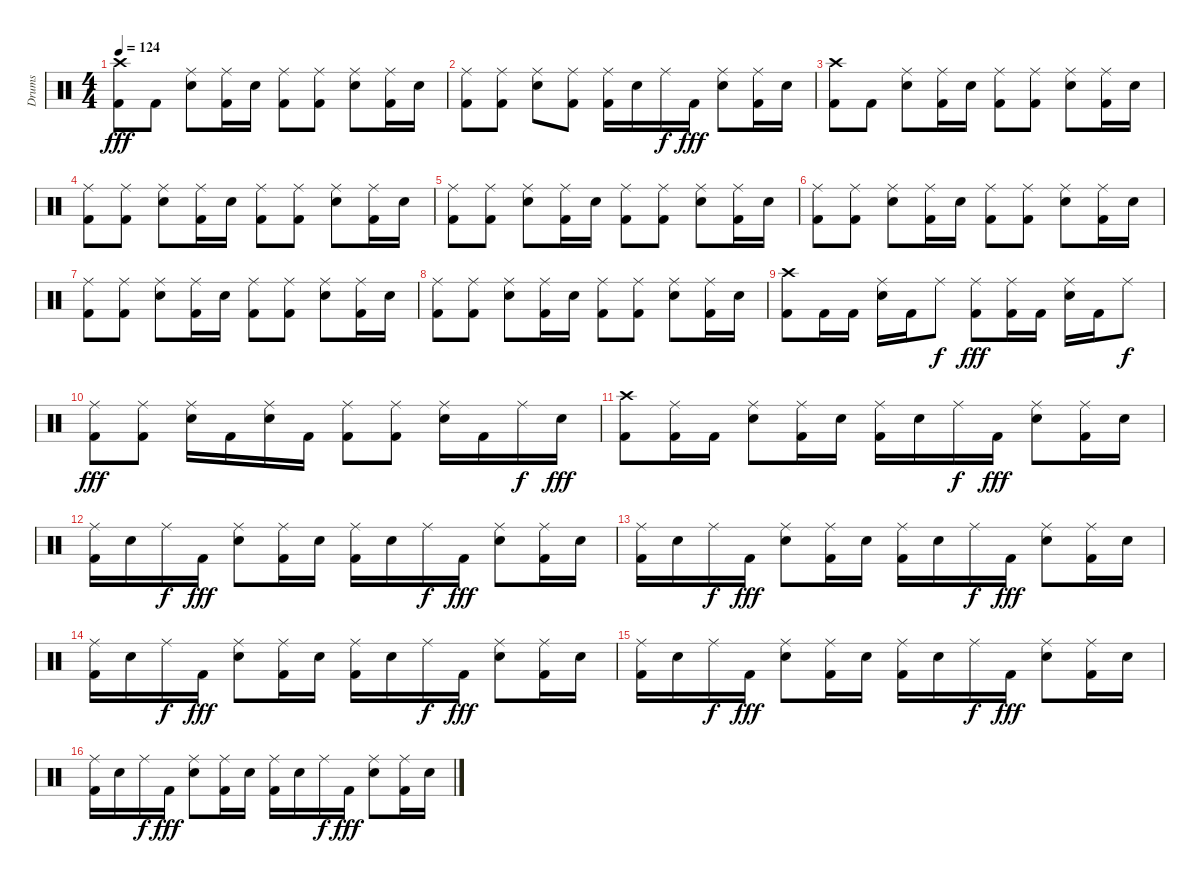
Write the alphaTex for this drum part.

\track ("Drums" "Drums") {instrument percussion}
\staff {score}
\articulation defaults
\ts (4 4)
\tempo 124
\clef neutral
\ks c
("Crash high (hit)" "Kick (hit) 2").8{dy fff} "Kick (hit) 2".8 ("Ride (middle)" "Electric Snare (hit)").8 ("Ride (middle)" "Kick (hit) 2").16 "Electric Snare (hit)".16 ("Ride (middle)" "Kick (hit) 2").8 ("Ride (middle)" "Kick (hit) 2").8 ("Ride (middle)" "Electric Snare (hit)").8 ("Ride (middle)" "Kick (hit) 2").16 "Electric Snare (hit)".16 |
("Ride (middle)" "Kick (hit) 2").8 ("Ride (middle)" "Kick (hit) 2").8 ("Ride (middle)" "Electric Snare (hit)").8 ("Ride (middle)" "Kick (hit) 2").8 ("Ride (middle)" "Kick (hit) 2").16 "Electric Snare (hit)".16 "Ride (middle)".16{dy f} "Kick (hit) 2".16{dy fff} ("Ride (middle)" "Electric Snare (hit)").8 ("Ride (middle)" "Kick (hit) 2").16 "Electric Snare (hit)".16 |
("Crash high (hit)" "Kick (hit) 2").8 "Kick (hit) 2".8 ("Ride (middle)" "Electric Snare (hit)").8 ("Ride (middle)" "Kick (hit) 2").16 "Electric Snare (hit)".16 ("Ride (middle)" "Kick (hit) 2").8 ("Ride (middle)" "Kick (hit) 2").8 ("Ride (middle)" "Electric Snare (hit)").8 ("Ride (middle)" "Kick (hit) 2").16 "Electric Snare (hit)".16 |
("Ride (middle)" "Kick (hit) 2").8 ("Ride (middle)" "Kick (hit) 2").8 ("Ride (middle)" "Electric Snare (hit)").8 ("Ride (middle)" "Kick (hit) 2").16 "Electric Snare (hit)".16 ("Ride (middle)" "Kick (hit) 2").8 ("Ride (middle)" "Kick (hit) 2").8 ("Ride (middle)" "Electric Snare (hit)").8 ("Ride (middle)" "Kick (hit) 2").16 "Electric Snare (hit)".16 |
("Ride (middle)" "Kick (hit) 2").8 ("Ride (middle)" "Kick (hit) 2").8 ("Ride (middle)" "Electric Snare (hit)").8 ("Ride (middle)" "Kick (hit) 2").16 "Electric Snare (hit)".16 ("Ride (middle)" "Kick (hit) 2").8 ("Ride (middle)" "Kick (hit) 2").8 ("Ride (middle)" "Electric Snare (hit)").8 ("Ride (middle)" "Kick (hit) 2").16 "Electric Snare (hit)".16 |
("Ride (middle)" "Kick (hit) 2").8 ("Ride (middle)" "Kick (hit) 2").8 ("Ride (middle)" "Electric Snare (hit)").8 ("Ride (middle)" "Kick (hit) 2").16 "Electric Snare (hit)".16 ("Ride (middle)" "Kick (hit) 2").8 ("Ride (middle)" "Kick (hit) 2").8 ("Ride (middle)" "Electric Snare (hit)").8 ("Ride (middle)" "Kick (hit) 2").16 "Electric Snare (hit)".16 |
("Ride (middle)" "Kick (hit) 2").8 ("Ride (middle)" "Kick (hit) 2").8 ("Ride (middle)" "Electric Snare (hit)").8 ("Ride (middle)" "Kick (hit) 2").16 "Electric Snare (hit)".16 ("Ride (middle)" "Kick (hit) 2").8 ("Ride (middle)" "Kick (hit) 2").8 ("Ride (middle)" "Electric Snare (hit)").8 ("Ride (middle)" "Kick (hit) 2").16 "Electric Snare (hit)".16 |
("Ride (middle)" "Kick (hit) 2").8 ("Ride (middle)" "Kick (hit) 2").8 ("Ride (middle)" "Electric Snare (hit)").8 ("Ride (middle)" "Kick (hit) 2").16 "Electric Snare (hit)".16 ("Ride (middle)" "Kick (hit) 2").8 ("Ride (middle)" "Kick (hit) 2").8 ("Ride (middle)" "Electric Snare (hit)").8 ("Ride (middle)" "Kick (hit) 2").16 "Electric Snare (hit)".16 |
("Crash high (hit)" "Kick (hit) 2").8 "Kick (hit) 2".16 "Kick (hit) 2".16 ("Ride (middle)" "Electric Snare (hit)").16 "Kick (hit) 2".16 "Ride (middle)".8{dy f} ("Ride (middle)" "Kick (hit) 2").8{dy fff} ("Ride (middle)" "Kick (hit) 2").16 "Kick (hit) 2".16 ("Ride (middle)" "Electric Snare (hit)").16 "Kick (hit) 2".16 "Ride (middle)".8{dy f} |
("Ride (middle)" "Kick (hit) 2").8{dy fff} ("Ride (middle)" "Kick (hit) 2").8 ("Ride (middle)" "Electric Snare (hit)").16 "Kick (hit) 2".16 ("Ride (middle)" "Electric Snare (hit)").16 "Kick (hit) 2".16 ("Ride (middle)" "Kick (hit) 2").8 ("Ride (middle)" "Kick (hit) 2").8 ("Ride (middle)" "Electric Snare (hit)").16 "Kick (hit) 2".16 "Ride (middle)".16{dy f} "Electric Snare (hit)".16{dy fff} |
("Crash high (hit)" "Kick (hit) 2").8 ("Ride (middle)" "Kick (hit) 2").16 "Kick (hit) 2".16 ("Ride (middle)" "Electric Snare (hit)").8 ("Ride (middle)" "Kick (hit) 2").16 "Electric Snare (hit)".16 ("Ride (middle)" "Kick (hit) 2").16 "Electric Snare (hit)".16 "Ride (middle)".16{dy f} "Kick (hit) 2".16{dy fff} ("Ride (middle)" "Electric Snare (hit)").8 ("Ride (middle)" "Kick (hit) 2").16 "Electric Snare (hit)".16 |
("Ride (middle)" "Kick (hit) 2").16 "Electric Snare (hit)".16 "Ride (middle)".16{dy f} "Kick (hit) 2".16{dy fff} ("Ride (middle)" "Electric Snare (hit)").8 ("Ride (middle)" "Kick (hit) 2").16 "Electric Snare (hit)".16 ("Ride (middle)" "Kick (hit) 2").16 "Electric Snare (hit)".16 "Ride (middle)".16{dy f} "Kick (hit) 2".16{dy fff} ("Ride (middle)" "Electric Snare (hit)").8 ("Ride (middle)" "Kick (hit) 2").16 "Electric Snare (hit)".16 |
("Ride (middle)" "Kick (hit) 2").16 "Electric Snare (hit)".16 "Ride (middle)".16{dy f} "Kick (hit) 2".16{dy fff} ("Ride (middle)" "Electric Snare (hit)").8 ("Ride (middle)" "Kick (hit) 2").16 "Electric Snare (hit)".16 ("Ride (middle)" "Kick (hit) 2").16 "Electric Snare (hit)".16 "Ride (middle)".16{dy f} "Kick (hit) 2".16{dy fff} ("Ride (middle)" "Electric Snare (hit)").8 ("Ride (middle)" "Kick (hit) 2").16 "Electric Snare (hit)".16 |
("Ride (middle)" "Kick (hit) 2").16 "Electric Snare (hit)".16 "Ride (middle)".16{dy f} "Kick (hit) 2".16{dy fff} ("Ride (middle)" "Electric Snare (hit)").8 ("Ride (middle)" "Kick (hit) 2").16 "Electric Snare (hit)".16 ("Ride (middle)" "Kick (hit) 2").16 "Electric Snare (hit)".16 "Ride (middle)".16{dy f} "Kick (hit) 2".16{dy fff} ("Ride (middle)" "Electric Snare (hit)").8 ("Ride (middle)" "Kick (hit) 2").16 "Electric Snare (hit)".16 |
("Ride (middle)" "Kick (hit) 2").16 "Electric Snare (hit)".16 "Ride (middle)".16{dy f} "Kick (hit) 2".16{dy fff} ("Ride (middle)" "Electric Snare (hit)").8 ("Ride (middle)" "Kick (hit) 2").16 "Electric Snare (hit)".16 ("Ride (middle)" "Kick (hit) 2").16 "Electric Snare (hit)".16 "Ride (middle)".16{dy f} "Kick (hit) 2".16{dy fff} ("Ride (middle)" "Electric Snare (hit)").8 ("Ride (middle)" "Kick (hit) 2").16 "Electric Snare (hit)".16 |
("Ride (middle)" "Kick (hit) 2").16 "Electric Snare (hit)".16 "Ride (middle)".16{dy f} "Kick (hit) 2".16{dy fff} ("Ride (middle)" "Electric Snare (hit)").8 ("Ride (middle)" "Kick (hit) 2").16 "Electric Snare (hit)".16 ("Ride (middle)" "Kick (hit) 2").16 "Electric Snare (hit)".16 "Ride (middle)".16{dy f} "Kick (hit) 2".16{dy fff} ("Ride (middle)" "Electric Snare (hit)").8 ("Ride (middle)" "Kick (hit) 2").16 "Electric Snare (hit)".16
